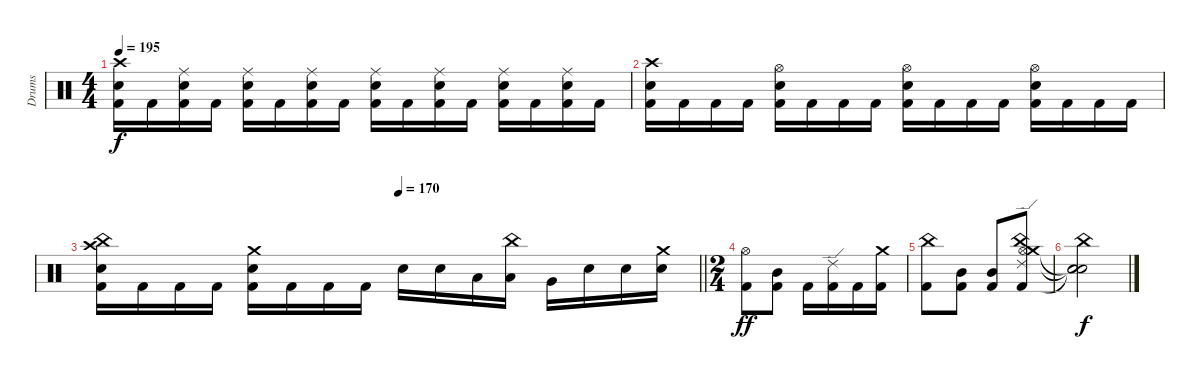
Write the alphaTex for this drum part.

\track ("Drums" "Drums") {instrument percussion}
\staff {score}
\articulation defaults
\ts (4 4)
\tempo 195
\clef neutral
\ks c
("Kick (hit) 2" "Electric Snare (hit)" "Crash high (hit)").16{dy f} "Kick (hit) 2".16 ("Kick (hit) 2" "Electric Snare (hit)" "Ride (middle)").16 "Kick (hit) 2".16 ("Kick (hit) 2" "Electric Snare (hit)" "Ride (middle)").16 "Kick (hit) 2".16 ("Kick (hit) 2" "Electric Snare (hit)" "Ride (middle)").16 "Kick (hit) 2".16 ("Kick (hit) 2" "Electric Snare (hit)" "Ride (middle)").16 "Kick (hit) 2".16 ("Kick (hit) 2" "Electric Snare (hit)" "Ride (middle)").16 "Kick (hit) 2".16 ("Kick (hit) 2" "Electric Snare (hit)" "Ride (middle)").16 "Kick (hit) 2".16 ("Kick (hit) 2" "Electric Snare (hit)" "Ride (middle)").16 "Kick (hit) 2".16 |
("Kick (hit) 2" "Crash high (hit)" "Electric Snare (hit)").16 "Kick (hit) 2".16 "Kick (hit) 2".16 "Kick (hit) 2".16 ("Kick (hit) 2" "Electric Snare (hit)" "Hi-Hat (open)").16 "Kick (hit) 2".16 "Kick (hit) 2".16 "Kick (hit) 2".16 ("Kick (hit) 2" "Electric Snare (hit)" "Hi-Hat (open)").16 "Kick (hit) 2".16 "Kick (hit) 2".16 "Kick (hit) 2".16 ("Kick (hit) 2" "Electric Snare (hit)" "Hi-Hat (open)").16 "Kick (hit) 2".16 "Kick (hit) 2".16 "Kick (hit) 2".16 |
\tempo (170 0.5)
\barLineRight lightlight
("Kick (hit) 2" "Crash high (hit)" "Electric Snare (hit)" "China (hit)").16 "Kick (hit) 2".16 "Kick (hit) 2".16 "Kick (hit) 2".16 ("Kick (hit) 2" "Electric Snare (hit)" "Crash medium (hit)").16 "Kick (hit) 2".16 "Kick (hit) 2".16 "Kick (hit) 2".16 "Electric Snare (hit)".16 "Electric Snare (hit)".16 "Low Tom (hit)".16 ("China (hit)" "Low Tom (hit)").16 "Very Low Tom (hit)".16 "Electric Snare (hit)".16 "Electric Snare (hit)".16 ("Crash medium (hit)" "Electric Snare (hit)").16 |
\ts (2 4)
("Kick (hit) 2" "Hi-Hat (open)").8{dy ff} ("Kick (hit) 2" "Mid Tom (hit)").8 "Kick (hit) 2".16 ("Kick (hit) 2" "Ride (edge) 2").16 "Kick (hit) 2".16 ("Kick (hit) 2" "Crash medium (hit)").16 |
("Kick (hit) 2" "China (hit)").8 ("Kick (hit) 2" "Mid Tom (hit)").8 ("Kick (hit) 2" "Mid Tom (hit)").8 ("Kick (hit) 2" "China (hit)" "Hi-Hat (open)" "Ride (edge) 2" "Crash medium (hit)").8 |
("Snare (hit)"{t} "China (hit)" "Snare (hit)"{t} "Snare (hit)"{t}).2{dy f}
